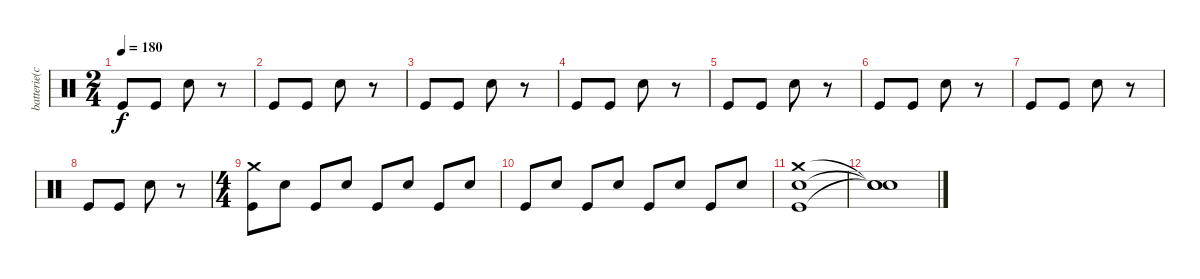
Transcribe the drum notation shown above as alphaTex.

\track ("batterie(chip)" "batterie(c") {instrument percussion}
\staff {score}
\articulation defaults
\ts (2 4)
\tempo 180
\clef neutral
\ks c "Kick (hit)".8{dy f} "Kick (hit)".8 "Snare (hit) 2".8
r.8 |
"Kick (hit)".8 "Kick (hit)".8 "Snare (hit) 2".8 r.8 |
"Kick (hit)".8 "Kick (hit)".8 "Snare (hit) 2".8 r.8 |
"Kick (hit)".8 "Kick (hit)".8 "Snare (hit) 2".8 r.8 |
"Kick (hit)".8 "Kick (hit)".8 "Snare (hit) 2".8 r.8 |
"Kick (hit)".8 "Kick (hit)".8 "Snare (hit) 2".8 r.8 |
"Kick (hit)".8 "Kick (hit)".8 "Snare (hit) 2".8 r.8 |
"Kick (hit)".8 "Kick (hit)".8 "Snare (hit) 2".8 r.8 |
\ts (4 4)
("Crash medium (hit)" "Kick (hit)").8 "Snare (hit) 2".8 "Kick (hit)".8 "Snare (hit) 2".8 "Kick (hit)".8 "Snare (hit) 2".8 "Kick (hit)".8 "Snare (hit) 2".8 |
"Kick (hit)".8 "Snare (hit) 2".8 "Kick (hit)".8 "Snare (hit) 2".8 "Kick (hit)".8 "Snare (hit) 2".8 "Kick (hit)".8 "Snare (hit) 2".8 |
("Crash medium (hit)" "Snare (hit) 2" "Kick (hit)").1 |
("Snare (hit)"{t} "Snare (hit)"{t} "Snare (hit)"{t}).1
